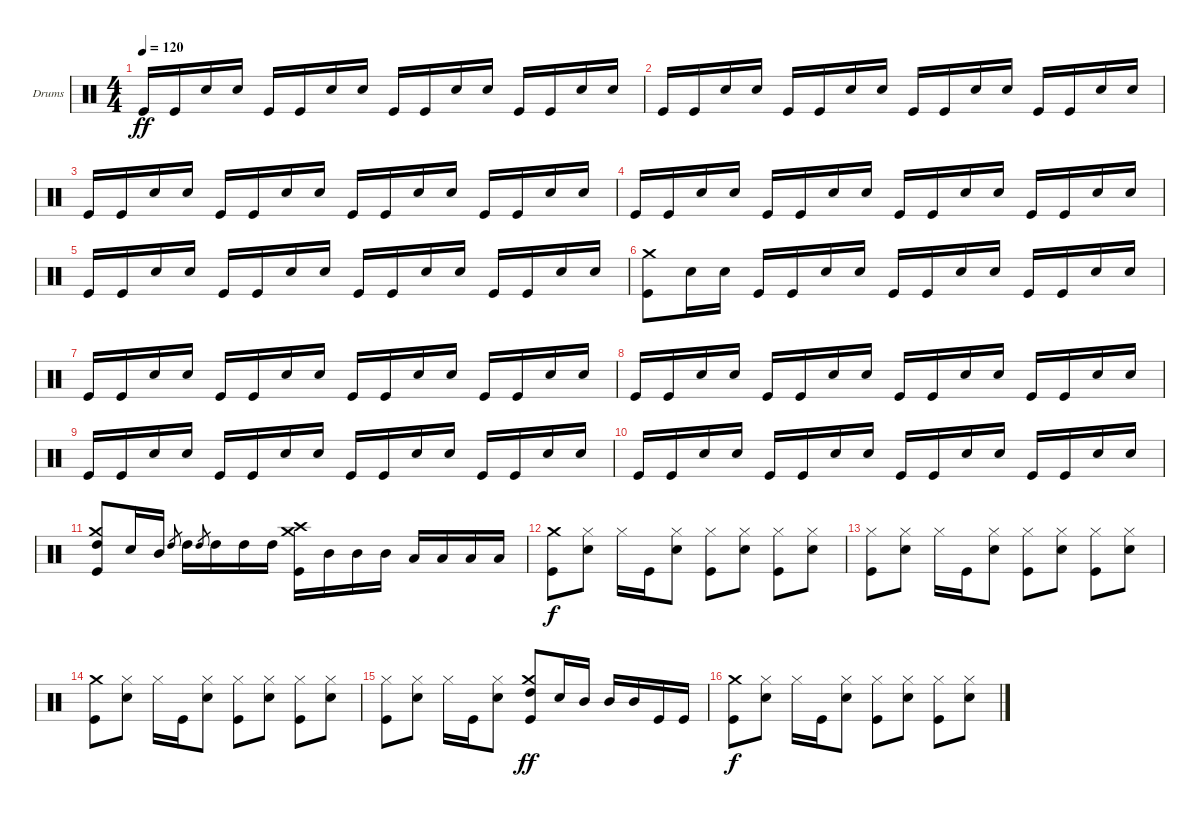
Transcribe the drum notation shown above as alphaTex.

\defaultSystemsLayout 4
\bracketExtendMode groupsimilarinstruments
\firstSystemTrackNameOrientation horizontal
\otherSystemsTrackNameOrientation horizontal
\track ("Drumkit" "Drums") {instrument percussion}
\staff {score}
\articulation defaults
\ts (4 4)
\tempo 120
\clef neutral
\scale
0.333333
\ks c "Kick (hit)".16{dy ff} "Kick (hit)".16 "Snare (hit) 2".16 "Snare (hit) 2".16 "Kick (hit)".16 "Kick (hit)".16 "Snare (hit) 2".16 "Snare (hit) 2".16 "Kick (hit)".16 "Kick (hit)".16 "Snare (hit) 2".16 "Snare (hit) 2".16 "Kick (hit)".16 "Kick (hit)".16 "Snare (hit) 2".16 "Snare (hit) 2".16
|
\scale
0.333333 "Kick (hit)".16 "Kick (hit)".16 "Snare (hit) 2".16 "Snare (hit) 2".16 "Kick (hit)".16 "Kick (hit)".16 "Snare (hit) 2".16 "Snare (hit) 2".16 "Kick (hit)".16 "Kick (hit)".16 "Snare (hit) 2".16 "Snare (hit) 2".16 "Kick (hit)".16 "Kick (hit)".16 "Snare (hit) 2".16 "Snare (hit) 2".16 |
\scale
0.333333 "Kick (hit)".16 "Kick (hit)".16 "Snare (hit) 2".16 "Snare (hit) 2".16 "Kick (hit)".16 "Kick (hit)".16 "Snare (hit) 2".16 "Snare (hit) 2".16 "Kick (hit)".16 "Kick (hit)".16 "Snare (hit) 2".16 "Snare (hit) 2".16 "Kick (hit)".16 "Kick (hit)".16 "Snare (hit) 2".16 "Snare (hit) 2".16 |
\scale
0.333333 "Kick (hit)".16 "Kick (hit)".16 "Snare (hit) 2".16 "Snare (hit) 2".16 "Kick (hit)".16 "Kick (hit)".16 "Snare (hit) 2".16 "Snare (hit) 2".16 "Kick (hit)".16 "Kick (hit)".16 "Snare (hit) 2".16 "Snare (hit) 2".16 "Kick (hit)".16 "Kick (hit)".16 "Snare (hit) 2".16 "Snare (hit) 2".16 |
\scale
0.333333 "Kick (hit)".16 "Kick (hit)".16 "Snare (hit) 2".16 "Snare (hit) 2".16 "Kick (hit)".16 "Kick (hit)".16 "Snare (hit) 2".16 "Snare (hit) 2".16 "Kick (hit)".16 "Kick (hit)".16 "Snare (hit) 2".16 "Snare (hit) 2".16 "Kick (hit)".16 "Kick (hit)".16 "Snare (hit) 2".16 "Snare (hit) 2".16 |
\scale
0.333333 ("Kick (hit)" "Crash medium (hit)").8 "Snare (hit) 2".16 "Snare (hit) 2".16 "Kick (hit)".16 "Kick (hit)".16 "Snare (hit) 2".16 "Snare (hit) 2".16 "Kick (hit)".16 "Kick (hit)".16 "Snare (hit) 2".16 "Snare (hit) 2".16 "Kick (hit)".16 "Kick (hit)".16 "Snare (hit) 2".16 "Snare (hit) 2".16 |
\scale
0.333333 "Kick (hit)".16 "Kick (hit)".16 "Snare (hit) 2".16 "Snare (hit) 2".16 "Kick (hit)".16 "Kick (hit)".16 "Snare (hit) 2".16 "Snare (hit) 2".16 "Kick (hit)".16 "Kick (hit)".16 "Snare (hit) 2".16 "Snare (hit) 2".16 "Kick (hit)".16 "Kick (hit)".16 "Snare (hit) 2".16 "Snare (hit) 2".16 |
\scale
0.333333 "Kick (hit)".16 "Kick (hit)".16 "Snare (hit) 2".16 "Snare (hit) 2".16 "Kick (hit)".16 "Kick (hit)".16 "Snare (hit) 2".16 "Snare (hit) 2".16 "Kick (hit)".16 "Kick (hit)".16 "Snare (hit) 2".16 "Snare (hit) 2".16 "Kick (hit)".16 "Kick (hit)".16 "Snare (hit) 2".16 "Snare (hit) 2".16 |
\scale
0.333333 "Kick (hit)".16 "Kick (hit)".16 "Snare (hit) 2".16 "Snare (hit) 2".16 "Kick (hit)".16 "Kick (hit)".16 "Snare (hit) 2".16 "Snare (hit) 2".16 "Kick (hit)".16 "Kick (hit)".16 "Snare (hit) 2".16 "Snare (hit) 2".16 "Kick (hit)".16 "Kick (hit)".16 "Snare (hit) 2".16 "Snare (hit) 2".16 |
\scale
0.333333 "Kick (hit)".16 "Kick (hit)".16 "Snare (hit) 2".16 "Snare (hit) 2".16 "Kick (hit)".16 "Kick (hit)".16 "Snare (hit) 2".16 "Snare (hit) 2".16 "Kick (hit)".16 "Kick (hit)".16 "Snare (hit) 2".16 "Snare (hit) 2".16 "Kick (hit)".16 "Kick (hit)".16 "Snare (hit) 2".16 "Snare (hit) 2".16 |
\scale
0.333333 ("Kick (hit)" "Crash medium (hit)" "High Tom (hit)").8 "Snare (hit) 2".16 "Mid Tom (hit)".16 "High Tom (hit)".8{gr} "High Tom (hit)".16 "High Tom (hit)".8{gr} "High Tom (hit)".16 "High Tom (hit)".16 "High Tom (hit)".16 ("Kick (hit)" "Crash high (hit)" "Crash medium (hit)").16 "Mid Tom (hit)".16 "Mid Tom (hit)".16 "Mid Tom (hit)".16 "Low Tom (hit)".16 "Low Tom (hit)".16 "Low Tom (hit)".16 "Low Tom (hit)".16 |
\scale
0.333333 ("Kick (hit)" "Crash medium (hit)").8{dy f} ("Snare (hit) 2" "Hi-Hat (closed)").8 "Hi-Hat (closed)".16 "Kick (hit)".16 ("Snare (hit) 2" "Hi-Hat (closed)").8 ("Kick (hit)" "Hi-Hat (closed)").8 ("Snare (hit) 2" "Hi-Hat (closed)").8 ("Kick (hit)" "Hi-Hat (closed)").8 ("Snare (hit) 2" "Hi-Hat (closed)").8 |
\scale
0.333333 ("Kick (hit)" "Hi-Hat (closed)").8 ("Snare (hit) 2" "Hi-Hat (closed)").8 "Hi-Hat (closed)".16 "Kick (hit)".16 ("Snare (hit) 2" "Hi-Hat (closed)").8 ("Kick (hit)" "Hi-Hat (closed)").8 ("Snare (hit) 2" "Hi-Hat (closed)").8 ("Kick (hit)" "Hi-Hat (closed)").8 ("Snare (hit) 2" "Hi-Hat (closed)").8 |
\scale
0.333333 ("Kick (hit)" "Crash medium (hit)").8 ("Snare (hit) 2" "Hi-Hat (closed)").8 "Hi-Hat (closed)".16 "Kick (hit)".16 ("Snare (hit) 2" "Hi-Hat (closed)").8 ("Kick (hit)" "Hi-Hat (closed)").8 ("Snare (hit) 2" "Hi-Hat (closed)").8 ("Kick (hit)" "Hi-Hat (closed)").8 ("Snare (hit) 2" "Hi-Hat (closed)").8 |
\scale
0.333333 ("Kick (hit)" "Hi-Hat (closed)").8 ("Snare (hit) 2" "Hi-Hat (closed)").8 "Hi-Hat (closed)".16 "Kick (hit)".16 ("Snare (hit) 2" "Hi-Hat (closed)").8 ("Kick (hit)" "Crash medium (hit)" "High Tom (hit)").8{dy ff} "Snare (hit) 2".16 "Mid Tom (hit)".16 "Mid Tom (hit)".16 "Mid Tom (hit)".16 "Kick (hit)".16 "Kick (hit)".16 |
\scale
0.333333 ("Kick (hit)" "Crash medium (hit)").8{dy f} ("Snare (hit) 2" "Hi-Hat (closed)").8 "Hi-Hat (closed)".16 "Kick (hit)".16 ("Snare (hit) 2" "Hi-Hat (closed)").8 ("Kick (hit)" "Hi-Hat (closed)").8 ("Snare (hit) 2" "Hi-Hat (closed)").8 ("Kick (hit)" "Hi-Hat (closed)").8 ("Snare (hit) 2" "Hi-Hat (closed)").8
